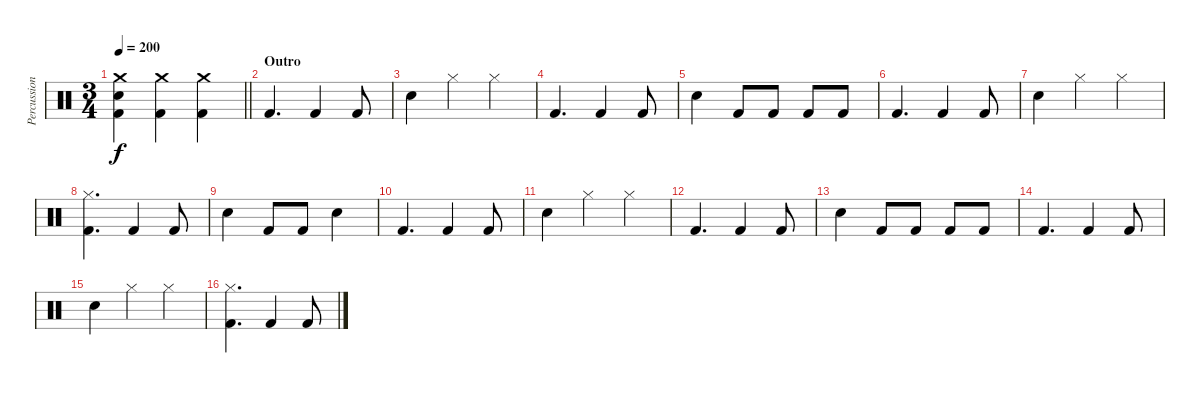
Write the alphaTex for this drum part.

\track ("Percussion" "Percussion") {instrument percussion}
\staff {score}
\articulation defaults
\ts (3 4)
\tempo 200
\clef neutral
\barLineRight lightlight
\ks c
("Crash medium (hit)" "Snare (hit) 2" "Kick (hit) 2").4{dy f} ("Crash medium (hit)" "Kick (hit) 2").4 ("Crash medium (hit)" "Kick (hit) 2").4 |
\section ("" "Outro")
"Kick (hit) 2".4{d} "Kick (hit) 2".4 "Kick (hit) 2".8 |
"Snare (hit) 2".4 "Hi-Hat (closed)".4 "Hi-Hat (closed)".4 |
"Kick (hit) 2".4{d} "Kick (hit) 2".4 "Kick (hit) 2".8 |
"Snare (hit) 2".4 "Kick (hit) 2".8 "Kick (hit) 2".8 "Kick (hit) 2".8 "Kick (hit) 2".8 |
"Kick (hit) 2".4{d} "Kick (hit) 2".4 "Kick (hit) 2".8 |
"Snare (hit) 2".4 "Hi-Hat (closed)".4 "Hi-Hat (closed)".4 |
("Hi-Hat (closed)" "Kick (hit) 2").4{d} "Kick (hit) 2".4 "Kick (hit) 2".8 |
"Snare (hit) 2".4 "Kick (hit) 2".8 "Kick (hit) 2".8 "Snare (hit) 2".4 |
"Kick (hit) 2".4{d} "Kick (hit) 2".4 "Kick (hit) 2".8 |
"Snare (hit) 2".4 "Hi-Hat (closed)".4 "Hi-Hat (closed)".4 |
"Kick (hit) 2".4{d} "Kick (hit) 2".4 "Kick (hit) 2".8 |
"Snare (hit) 2".4 "Kick (hit) 2".8 "Kick (hit) 2".8 "Kick (hit) 2".8 "Kick (hit) 2".8 |
"Kick (hit) 2".4{d} "Kick (hit) 2".4 "Kick (hit) 2".8 |
"Snare (hit) 2".4 "Hi-Hat (closed)".4 "Hi-Hat (closed)".4 |
("Hi-Hat (closed)" "Kick (hit) 2").4{d} "Kick (hit) 2".4 "Kick (hit) 2".8
